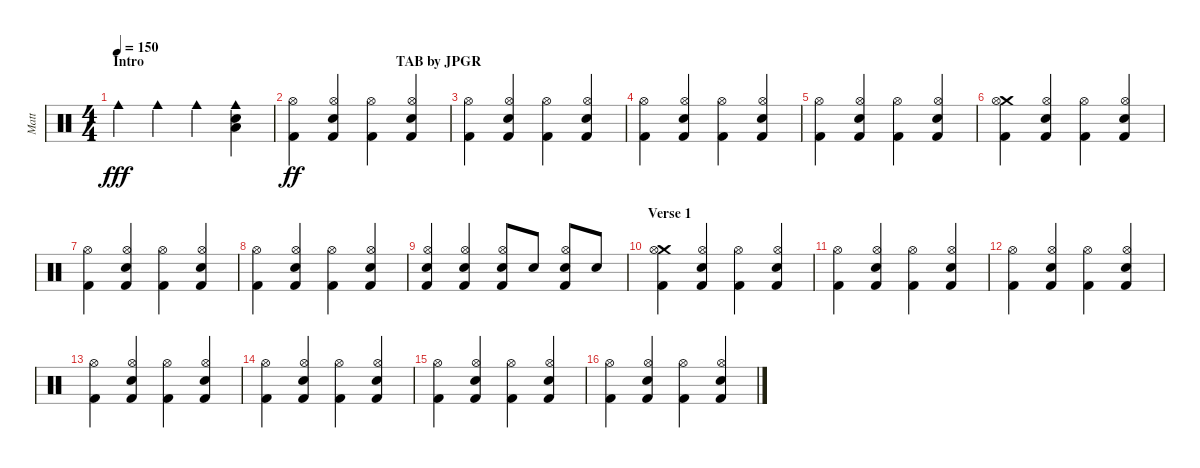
\track ("Matt" "Matt") {instrument percussion}
\staff {score}
\articulation defaults
\ts (4 4)
\section ("" "Intro                                                                        TAB by JPGR")
\tempo 150
\clef neutral
\ks c "Cowbell medium (hit)".4{dy fff} "Cowbell medium (hit)".4 "Cowbell medium (hit)".4
("Cowbell medium (hit)" "Low Floor Tom (hit)" "Electric Snare (hit)").4 |
("Hi-Hat (open)" "Kick (hit) 2").4{dy ff} ("Hi-Hat (open)" "Electric Snare (hit)" "Kick (hit) 2").4 ("Hi-Hat (open)" "Kick (hit) 2").4 ("Hi-Hat (open)" "Electric Snare (hit)" "Kick (hit) 2").4 |
("Hi-Hat (open)" "Kick (hit) 2").4 ("Hi-Hat (open)" "Electric Snare (hit)" "Kick (hit) 2").4 ("Hi-Hat (open)" "Kick (hit) 2").4 ("Hi-Hat (open)" "Electric Snare (hit)" "Kick (hit) 2").4 |
("Hi-Hat (open)" "Kick (hit) 2").4 ("Hi-Hat (open)" "Electric Snare (hit)" "Kick (hit) 2").4 ("Hi-Hat (open)" "Kick (hit) 2").4 ("Hi-Hat (open)" "Electric Snare (hit)" "Kick (hit) 2").4 |
("Hi-Hat (open)" "Kick (hit) 2").4 ("Hi-Hat (open)" "Electric Snare (hit)" "Kick (hit) 2").4 ("Hi-Hat (open)" "Kick (hit) 2").4 ("Hi-Hat (open)" "Electric Snare (hit)" "Kick (hit) 2").4 |
("Crash medium (hit)" "Hi-Hat (open)" "Kick (hit) 2").4 ("Hi-Hat (open)" "Electric Snare (hit)" "Kick (hit) 2").4 ("Hi-Hat (open)" "Kick (hit) 2").4 ("Hi-Hat (open)" "Electric Snare (hit)" "Kick (hit) 2").4 |
("Hi-Hat (open)" "Kick (hit) 2").4 ("Hi-Hat (open)" "Electric Snare (hit)" "Kick (hit) 2").4 ("Hi-Hat (open)" "Kick (hit) 2").4 ("Hi-Hat (open)" "Electric Snare (hit)" "Kick (hit) 2").4 |
("Hi-Hat (open)" "Kick (hit) 2").4 ("Hi-Hat (open)" "Electric Snare (hit)" "Kick (hit) 2").4 ("Hi-Hat (open)" "Kick (hit) 2").4 ("Hi-Hat (open)" "Electric Snare (hit)" "Kick (hit) 2").4 |
("Hi-Hat (open)" "Electric Snare (hit)" "Kick (hit) 2").4 ("Hi-Hat (open)" "Electric Snare (hit)" "Kick (hit) 2").4 ("Hi-Hat (open)" "Electric Snare (hit)" "Kick (hit) 2").8 "Electric Snare (hit)".8 ("Hi-Hat (open)" "Electric Snare (hit)" "Kick (hit) 2").8 "Electric Snare (hit)".8 |
\section ("" "Verse 1")
("Crash medium (hit)" "Hi-Hat (open)" "Kick (hit) 2").4 ("Hi-Hat (open)" "Electric Snare (hit)" "Kick (hit) 2").4 ("Hi-Hat (open)" "Kick (hit) 2").4 ("Hi-Hat (open)" "Electric Snare (hit)" "Kick (hit) 2").4 |
("Hi-Hat (open)" "Kick (hit) 2").4 ("Hi-Hat (open)" "Electric Snare (hit)" "Kick (hit) 2").4 ("Hi-Hat (open)" "Kick (hit) 2").4 ("Hi-Hat (open)" "Electric Snare (hit)" "Kick (hit) 2").4 |
("Hi-Hat (open)" "Kick (hit) 2").4 ("Hi-Hat (open)" "Electric Snare (hit)" "Kick (hit) 2").4 ("Hi-Hat (open)" "Kick (hit) 2").4 ("Hi-Hat (open)" "Electric Snare (hit)" "Kick (hit) 2").4 |
("Hi-Hat (open)" "Kick (hit) 2").4 ("Hi-Hat (open)" "Electric Snare (hit)" "Kick (hit) 2").4 ("Hi-Hat (open)" "Kick (hit) 2").4 ("Hi-Hat (open)" "Electric Snare (hit)" "Kick (hit) 2").4 |
("Hi-Hat (open)" "Kick (hit) 2").4 ("Hi-Hat (open)" "Electric Snare (hit)" "Kick (hit) 2").4 ("Hi-Hat (open)" "Kick (hit) 2").4 ("Hi-Hat (open)" "Electric Snare (hit)" "Kick (hit) 2").4 |
("Hi-Hat (open)" "Kick (hit) 2").4 ("Hi-Hat (open)" "Electric Snare (hit)" "Kick (hit) 2").4 ("Hi-Hat (open)" "Kick (hit) 2").4 ("Hi-Hat (open)" "Electric Snare (hit)" "Kick (hit) 2").4 |
("Hi-Hat (open)" "Kick (hit) 2").4 ("Hi-Hat (open)" "Electric Snare (hit)" "Kick (hit) 2").4 ("Hi-Hat (open)" "Kick (hit) 2").4 ("Hi-Hat (open)" "Electric Snare (hit)" "Kick (hit) 2").4
